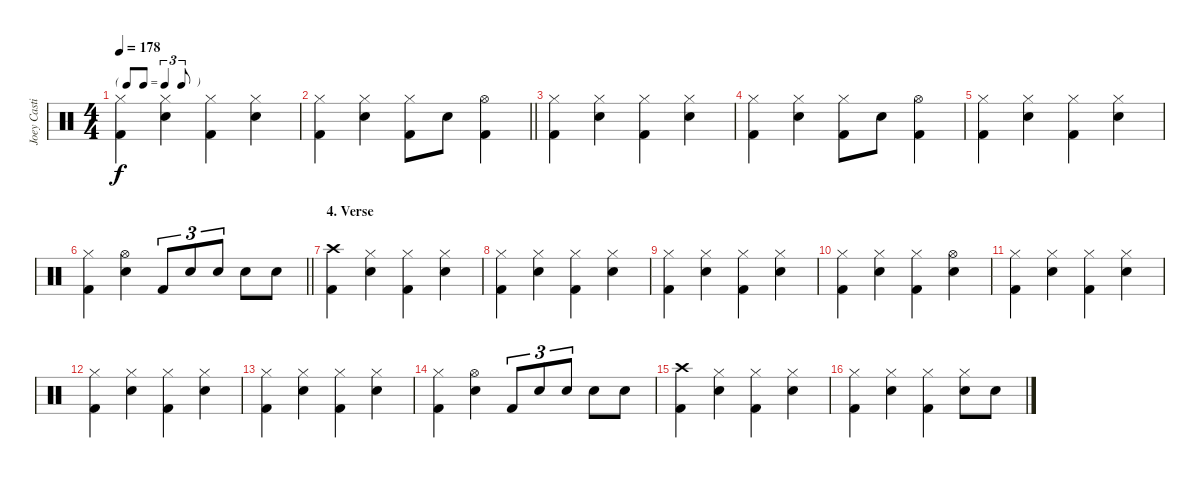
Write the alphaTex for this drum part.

\track ("Joey Castillo" "Joey Casti") {instrument percussion}
\staff {score}
\articulation defaults
\ts (4 4)
\tf triplet8th
\tempo 178
\clef neutral
\ks c
("Hi-Hat (closed)" "Kick (hit) 2").4{dy f} ("Hi-Hat (closed)" "Snare (hit) 2").4 ("Hi-Hat (closed)" "Kick (hit) 2").4 ("Hi-Hat (closed)" "Snare (hit) 2").4 |
\barLineRight lightlight
("Hi-Hat (closed)" "Kick (hit) 2").4 ("Hi-Hat (closed)" "Snare (hit) 2").4 ("Hi-Hat (closed)" "Kick (hit) 2").8 "Snare (hit) 2".8 ("Hi-Hat (open)" "Kick (hit) 2").4 |
("Hi-Hat (closed)" "Kick (hit) 2").4 ("Hi-Hat (closed)" "Snare (hit) 2").4 ("Hi-Hat (closed)" "Kick (hit) 2").4 ("Hi-Hat (closed)" "Snare (hit) 2").4 |
("Hi-Hat (closed)" "Kick (hit) 2").4 ("Hi-Hat (closed)" "Snare (hit) 2").4 ("Hi-Hat (closed)" "Kick (hit) 2").8 "Snare (hit) 2".8 ("Hi-Hat (open)" "Kick (hit) 2").4 |
("Hi-Hat (closed)" "Kick (hit) 2").4 ("Hi-Hat (closed)" "Snare (hit) 2").4 ("Hi-Hat (closed)" "Kick (hit) 2").4 ("Hi-Hat (closed)" "Snare (hit) 2").4 |
\barLineRight lightlight
("Hi-Hat (closed)" "Kick (hit) 2").4 ("Hi-Hat (open)" "Snare (hit) 2").4 "Kick (hit) 2".8{tu (3 2)} "Snare (hit) 2".8{tu (3 2)} "Snare (hit) 2".8{tu (3 2)} "Snare (hit) 2".8 "Snare (hit) 2".8 |
\section ("" "4. Verse")
("Crash high (hit)" "Kick (hit) 2").4{volume 16} ("Hi-Hat (closed)" "Snare (hit) 2").4 ("Hi-Hat (closed)" "Kick (hit) 2").4 ("Hi-Hat (closed)" "Snare (hit) 2").4 |
("Hi-Hat (closed)" "Kick (hit) 2").4 ("Hi-Hat (closed)" "Snare (hit) 2").4 ("Hi-Hat (closed)" "Kick (hit) 2").4 ("Hi-Hat (closed)" "Snare (hit) 2").4 |
("Hi-Hat (closed)" "Kick (hit) 2").4 ("Hi-Hat (closed)" "Snare (hit) 2").4 ("Hi-Hat (closed)" "Kick (hit) 2").4 ("Hi-Hat (closed)" "Snare (hit) 2").4 |
("Hi-Hat (closed)" "Kick (hit) 2").4 ("Hi-Hat (closed)" "Snare (hit) 2").4 ("Hi-Hat (closed)" "Kick (hit) 2").4 ("Hi-Hat (open)" "Snare (hit) 2").4 |
("Hi-Hat (closed)" "Kick (hit) 2").4 ("Hi-Hat (closed)" "Snare (hit) 2").4 ("Hi-Hat (closed)" "Kick (hit) 2").4 ("Hi-Hat (closed)" "Snare (hit) 2").4 |
("Hi-Hat (closed)" "Kick (hit) 2").4 ("Hi-Hat (closed)" "Snare (hit) 2").4 ("Hi-Hat (closed)" "Kick (hit) 2").4 ("Hi-Hat (closed)" "Snare (hit) 2").4 |
("Hi-Hat (closed)" "Kick (hit) 2").4 ("Hi-Hat (closed)" "Snare (hit) 2").4 ("Hi-Hat (closed)" "Kick (hit) 2").4 ("Hi-Hat (closed)" "Snare (hit) 2").4 |
("Hi-Hat (closed)" "Kick (hit) 2").4 ("Hi-Hat (open)" "Snare (hit) 2").4 "Kick (hit) 2".8{tu (3 2)} "Snare (hit) 2".8{tu (3 2)} "Snare (hit) 2".8{tu (3 2)} "Snare (hit) 2".8 "Snare (hit) 2".8 |
("Crash high (hit)" "Kick (hit) 2").4 ("Hi-Hat (closed)" "Snare (hit) 2").4 ("Hi-Hat (closed)" "Kick (hit) 2").4 ("Hi-Hat (closed)" "Snare (hit) 2").4 |
("Hi-Hat (closed)" "Kick (hit) 2").4 ("Hi-Hat (closed)" "Snare (hit) 2").4 ("Hi-Hat (closed)" "Kick (hit) 2").4 ("Hi-Hat (closed)" "Snare (hit) 2").8 "Snare (hit) 2".8
